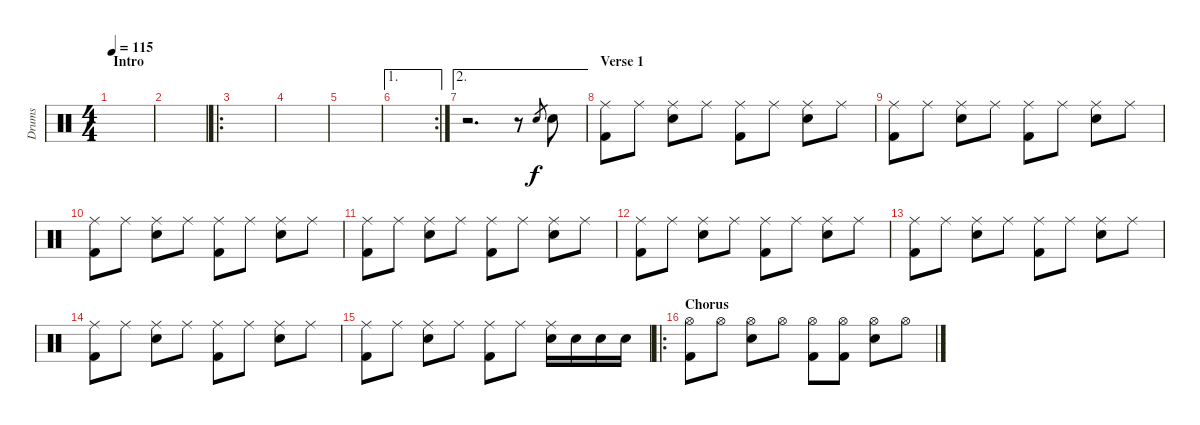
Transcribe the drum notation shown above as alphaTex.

\track ("Drums" "Drums") {instrument percussion}
\staff {score}
\articulation defaults
\ts (4 4)
\section ("" "Intro")
\tempo 115
\clef neutral
\ks c
|
|
\ro
|
|
|
\ae 1
\rc 2
|
\ae 2
r.2{d} r.8 "Electric Snare (hit)".8{gr} "Electric Snare (hit)".8 |
\section ("" "Verse 1")
("Ride (middle)" "Kick (hit) 2").8 "Ride (middle)".8 ("Ride (middle)" "Electric Snare (hit)").8 "Ride (middle)".8 ("Ride (middle)" "Kick (hit) 2").8 "Ride (middle)".8 ("Ride (middle)" "Electric Snare (hit)").8 "Ride (middle)".8 |
("Ride (middle)" "Kick (hit) 2").8 "Ride (middle)".8 ("Ride (middle)" "Electric Snare (hit)").8 "Ride (middle)".8 ("Ride (middle)" "Kick (hit) 2").8 "Ride (middle)".8 ("Ride (middle)" "Electric Snare (hit)").8 "Ride (middle)".8 |
("Ride (middle)" "Kick (hit) 2").8 "Ride (middle)".8 ("Ride (middle)" "Electric Snare (hit)").8 "Ride (middle)".8 ("Ride (middle)" "Kick (hit) 2").8 "Ride (middle)".8 ("Ride (middle)" "Electric Snare (hit)").8 "Ride (middle)".8 |
("Ride (middle)" "Kick (hit) 2").8 "Ride (middle)".8 ("Ride (middle)" "Electric Snare (hit)").8 "Ride (middle)".8 ("Ride (middle)" "Kick (hit) 2").8 "Ride (middle)".8 ("Ride (middle)" "Electric Snare (hit)").8 "Ride (middle)".8 |
("Ride (middle)" "Kick (hit) 2").8 "Ride (middle)".8 ("Ride (middle)" "Electric Snare (hit)").8 "Ride (middle)".8 ("Ride (middle)" "Kick (hit) 2").8 "Ride (middle)".8 ("Ride (middle)" "Electric Snare (hit)").8 "Ride (middle)".8 |
("Ride (middle)" "Kick (hit) 2").8 "Ride (middle)".8 ("Ride (middle)" "Electric Snare (hit)").8 "Ride (middle)".8 ("Ride (middle)" "Kick (hit) 2").8 "Ride (middle)".8 ("Ride (middle)" "Electric Snare (hit)").8 "Ride (middle)".8 |
("Ride (middle)" "Kick (hit) 2").8 "Ride (middle)".8 ("Ride (middle)" "Electric Snare (hit)").8 "Ride (middle)".8 ("Ride (middle)" "Kick (hit) 2").8 "Ride (middle)".8 ("Ride (middle)" "Electric Snare (hit)").8 "Ride (middle)".8 |
("Ride (middle)" "Kick (hit) 2").8 "Ride (middle)".8 ("Ride (middle)" "Electric Snare (hit)").8 "Ride (middle)".8 ("Ride (middle)" "Kick (hit) 2").8 "Ride (middle)".8 ("Ride (middle)" "Electric Snare (hit)").16 "Electric Snare (hit)".16 "Electric Snare (hit)".16 "Electric Snare (hit)".16 |
\ro
\section ("" "Chorus")
("Hi-Hat (open)" "Kick (hit) 2").8 "Hi-Hat (open)".8 ("Hi-Hat (open)" "Electric Snare (hit)").8 "Hi-Hat (open)".8 ("Hi-Hat (open)" "Kick (hit) 2").8 ("Hi-Hat (open)" "Kick (hit) 2").8 ("Hi-Hat (open)" "Electric Snare (hit)").8 "Hi-Hat (open)".8
